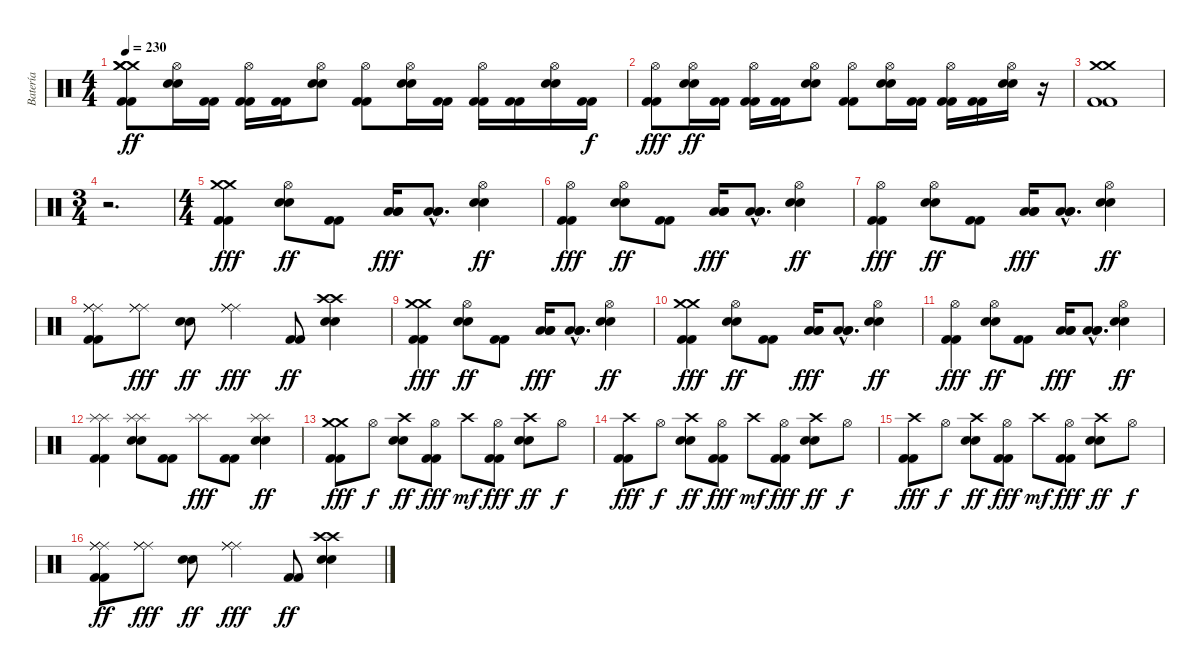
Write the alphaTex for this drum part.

\track ("Batería" "Batería") {instrument percussion}
\staff {score}
\articulation defaults
\ts (4 4)
\tempo 230
\clef neutral
\ks c
("Crash medium (hit)" "Crash medium (hit)" "Crash medium (hit)" "Kick (hit) 2" "Kick (hit) 2").8{dy ff} ("Hi-Hat (open)" "Electric Snare (hit)" "Electric Snare (hit)").16 ("Kick (hit) 2" "Kick (hit) 2").16 ("Hi-Hat (open)" "Kick (hit) 2" "Kick (hit) 2").16 ("Kick (hit) 2" "Kick (hit) 2").16 ("Hi-Hat (open)" "Electric Snare (hit)" "Electric Snare (hit)").8 ("Hi-Hat (open)" "Kick (hit) 2" "Kick (hit) 2").8 ("Hi-Hat (open)" "Electric Snare (hit)" "Electric Snare (hit)").16 ("Kick (hit) 2" "Kick (hit) 2").16 ("Hi-Hat (open)" "Kick (hit) 2" "Kick (hit) 2").16 ("Kick (hit) 2" "Kick (hit) 2").16 ("Hi-Hat (open)" "Electric Snare (hit)" "Electric Snare (hit)").16 ("Kick (hit) 2" "Kick (hit) 2").16{dy f} |
("Hi-Hat (open)" "Kick (hit) 2" "Kick (hit) 2").8{dy fff} ("Hi-Hat (open)" "Electric Snare (hit)" "Electric Snare (hit)").16{dy ff} ("Kick (hit) 2" "Kick (hit) 2").16 ("Hi-Hat (open)" "Kick (hit) 2" "Kick (hit) 2").16 ("Kick (hit) 2" "Kick (hit) 2").16 ("Hi-Hat (open)" "Electric Snare (hit)" "Electric Snare (hit)").8 ("Hi-Hat (open)" "Kick (hit) 2" "Kick (hit) 2").8 ("Hi-Hat (open)" "Electric Snare (hit)" "Electric Snare (hit)").16 ("Kick (hit) 2" "Kick (hit) 2").16 ("Hi-Hat (open)" "Kick (hit) 2" "Kick (hit) 2").16 ("Kick (hit) 2" "Kick (hit) 2").16 ("Hi-Hat (open)" "Electric Snare (hit)" "Electric Snare (hit)").16 r.16 |
("Crash medium (hit)" "Crash medium (hit)" "Kick (hit) 2" "Kick (hit) 2").1 |
\ts (3 4)
r.2{d} |
\ts (4 4)
("Crash medium (hit)" "Crash medium (hit)" "Kick (hit) 2" "Kick (hit) 2").4{dy fff} ("Hi-Hat (open)" "Electric Snare (hit)" "Electric Snare (hit)").8{dy ff} ("Kick (hit) 2" "Kick (hit) 2").8 ("Low Tom (hit)" "Low Floor Tom (hit)" "Low Floor Tom (hit)").16{dy fff} ("Low Tom (hit)"{hac} "Low Floor Tom (hit)"{hac} "Low Floor Tom (hit)"{hac}).8{d} ("Hi-Hat (open)" "Electric Snare (hit)" "Electric Snare (hit)").4{dy ff} |
("Hi-Hat (open)" "Kick (hit) 2" "Kick (hit) 2").4{dy fff} ("Hi-Hat (open)" "Electric Snare (hit)" "Electric Snare (hit)").8{dy ff} ("Kick (hit) 2" "Kick (hit) 2").8 ("Low Tom (hit)" "Low Floor Tom (hit)" "Low Floor Tom (hit)").16{dy fff} ("Low Tom (hit)"{hac} "Low Floor Tom (hit)"{hac} "Low Floor Tom (hit)"{hac}).8{d} ("Hi-Hat (open)" "Electric Snare (hit)" "Electric Snare (hit)").4{dy ff} |
("Hi-Hat (open)" "Kick (hit) 2" "Kick (hit) 2").4{dy fff} ("Hi-Hat (open)" "Electric Snare (hit)" "Electric Snare (hit)").8{dy ff} ("Kick (hit) 2" "Kick (hit) 2").8 ("Low Tom (hit)" "Low Floor Tom (hit)" "Low Floor Tom (hit)").16{dy fff} ("Low Tom (hit)"{hac} "Low Floor Tom (hit)"{hac} "Low Floor Tom (hit)"{hac}).8{d} ("Hi-Hat (open)" "Electric Snare (hit)" "Electric Snare (hit)").4{dy ff} |
("Ride (middle)" "Ride (middle)" "Ride (middle)" "Kick (hit) 2" "Kick (hit) 2").8 ("Ride (middle)" "Ride (middle)" "Ride (middle)").8{dy fff} ("Electric Snare (hit)" "Electric Snare (hit)").8{dy ff} ("Ride (middle)" "Ride (middle)" "Ride (middle)").4{dy fff} ("Kick (hit) 2" "Kick (hit) 2").8{dy ff} ("Crash high (hit)" "Crash high (hit)" "Electric Snare (hit)" "Electric Snare (hit)").4 |
("Crash medium (hit)" "Crash medium (hit)" "Kick (hit) 2" "Kick (hit) 2").4{dy fff} ("Hi-Hat (open)" "Electric Snare (hit)" "Electric Snare (hit)").8{dy ff} ("Kick (hit) 2" "Kick (hit) 2").8 ("Low Tom (hit)" "Low Floor Tom (hit)" "Low Floor Tom (hit)").16{dy fff} ("Low Tom (hit)"{hac} "Low Floor Tom (hit)"{hac} "Low Floor Tom (hit)"{hac}).8{d} ("Hi-Hat (open)" "Electric Snare (hit)" "Electric Snare (hit)").4{dy ff} |
("Crash medium (hit)" "Crash medium (hit)" "Kick (hit) 2" "Kick (hit) 2").4{dy fff} ("Hi-Hat (open)" "Electric Snare (hit)" "Electric Snare (hit)").8{dy ff} ("Kick (hit) 2" "Kick (hit) 2").8 ("Low Tom (hit)" "Low Floor Tom (hit)" "Low Floor Tom (hit)").16{dy fff} ("Low Tom (hit)"{hac} "Low Floor Tom (hit)"{hac} "Low Floor Tom (hit)"{hac}).8{d} ("Hi-Hat (open)" "Electric Snare (hit)" "Electric Snare (hit)").4{dy ff} |
("Hi-Hat (open)" "Kick (hit) 2" "Kick (hit) 2").4{dy fff} ("Hi-Hat (open)" "Electric Snare (hit)" "Electric Snare (hit)").8{dy ff} ("Kick (hit) 2" "Kick (hit) 2").8 ("Low Tom (hit)" "Low Floor Tom (hit)" "Low Floor Tom (hit)").16{dy fff} ("Low Tom (hit)"{hac} "Low Floor Tom (hit)"{hac} "Low Floor Tom (hit)"{hac}).8{d} ("Hi-Hat (open)" "Electric Snare (hit)" "Electric Snare (hit)").4{dy ff} |
("Splash (hit)" "Splash (hit)" "Kick (hit) 2" "Kick (hit) 2").4 ("Splash (hit)" "Splash (hit)" "Electric Snare (hit)" "Electric Snare (hit)").8 ("Kick (hit) 2" "Kick (hit) 2").8 ("Splash (hit)" "Splash (hit)").8{dy fff} ("Kick (hit) 2" "Kick (hit) 2").8 ("Splash (hit)" "Splash (hit)" "Electric Snare (hit)" "Electric Snare (hit)").4{dy ff} |
("Crash medium (hit)" "Crash medium (hit)" "Kick (hit) 2" "Kick (hit) 2").8{dy fff} "Hi-Hat (open)".8{dy f} ("Crash high (hit)" "Electric Snare (hit)" "Electric Snare (hit)").8{dy ff} ("Hi-Hat (open)" "Kick (hit) 2" "Kick (hit) 2").8{dy fff} "Crash high (hit)".8{dy mf} ("Hi-Hat (open)" "Kick (hit) 2" "Kick (hit) 2").8{dy fff} ("Crash high (hit)" "Electric Snare (hit)" "Electric Snare (hit)").8{dy ff} "Hi-Hat (open)".8{dy f} |
("Crash high (hit)" "Kick (hit) 2" "Kick (hit) 2").8{dy fff} "Hi-Hat (open)".8{dy f} ("Crash high (hit)" "Electric Snare (hit)" "Electric Snare (hit)").8{dy ff} ("Hi-Hat (open)" "Kick (hit) 2" "Kick (hit) 2").8{dy fff} "Crash high (hit)".8{dy mf} ("Hi-Hat (open)" "Kick (hit) 2" "Kick (hit) 2").8{dy fff} ("Crash high (hit)" "Electric Snare (hit)" "Electric Snare (hit)").8{dy ff} "Hi-Hat (open)".8{dy f} |
("Crash high (hit)" "Kick (hit) 2" "Kick (hit) 2").8{dy fff} "Hi-Hat (open)".8{dy f} ("Crash high (hit)" "Electric Snare (hit)" "Electric Snare (hit)").8{dy ff} ("Hi-Hat (open)" "Kick (hit) 2" "Kick (hit) 2").8{dy fff} "Crash high (hit)".8{dy mf} ("Hi-Hat (open)" "Kick (hit) 2" "Kick (hit) 2").8{dy fff} ("Crash high (hit)" "Electric Snare (hit)" "Electric Snare (hit)").8{dy ff} "Hi-Hat (open)".8{dy f} |
("Ride (middle)" "Ride (middle)" "Ride (middle)" "Kick (hit) 2" "Kick (hit) 2").8{dy ff} ("Ride (middle)" "Ride (middle)" "Ride (middle)").8{dy fff} ("Electric Snare (hit)" "Electric Snare (hit)").8{dy ff} ("Ride (middle)" "Ride (middle)" "Ride (middle)").4{dy fff} ("Kick (hit) 2" "Kick (hit) 2").8{dy ff} ("Crash high (hit)" "Crash high (hit)" "Electric Snare (hit)" "Electric Snare (hit)").4
